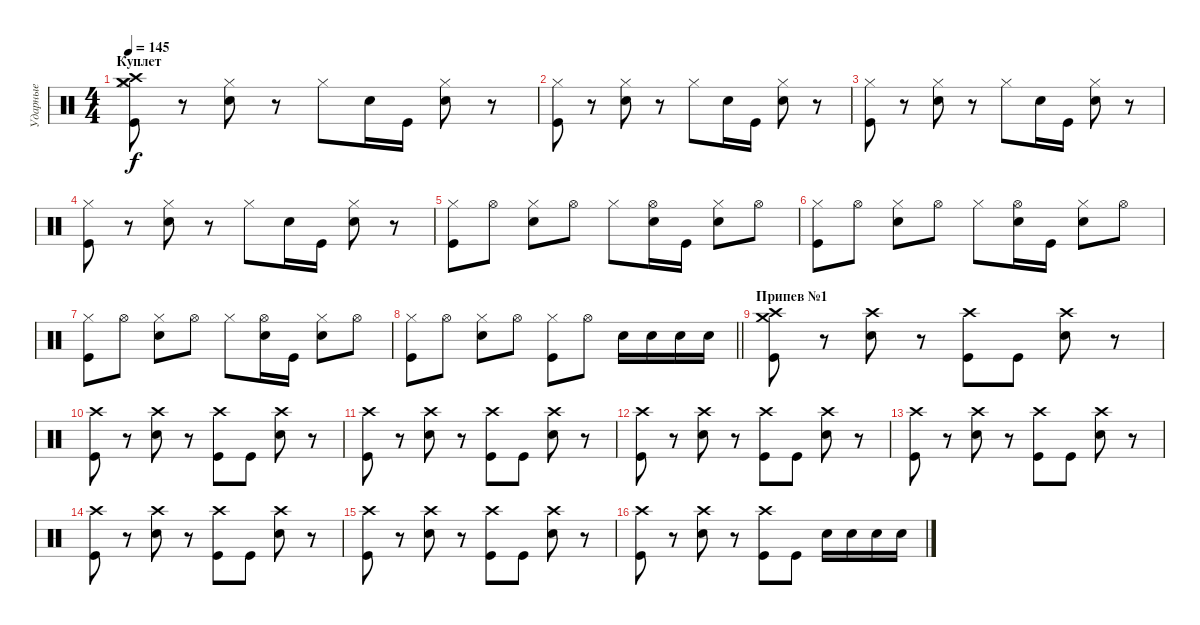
\track ("Ударные" "Ударные") {instrument percussion}
\staff {score}
\articulation defaults
\ts (4 4)
\section ("" "Куплет")
\tempo 145
\clef neutral
\ks c
("Kick (hit)" "Hi-Hat (closed)" "Crash high (hit)" "Crash medium (hit)").8{dy f} r.8 ("Electric Snare (hit)" "Hi-Hat (closed)").8 r.8 "Hi-Hat (closed)".8 "Electric Snare (hit)".16 "Kick (hit)".16 ("Electric Snare (hit)" "Hi-Hat (closed)").8 r.8 |
("Kick (hit)" "Hi-Hat (closed)").8 r.8 ("Electric Snare (hit)" "Hi-Hat (closed)").8 r.8 "Hi-Hat (closed)".8 "Electric Snare (hit)".16 "Kick (hit)".16 ("Electric Snare (hit)" "Hi-Hat (closed)").8 r.8 |
("Kick (hit)" "Hi-Hat (closed)").8 r.8 ("Electric Snare (hit)" "Hi-Hat (closed)").8 r.8 "Hi-Hat (closed)".8 "Electric Snare (hit)".16 "Kick (hit)".16 ("Electric Snare (hit)" "Hi-Hat (closed)").8 r.8 |
("Kick (hit)" "Hi-Hat (closed)").8 r.8 ("Electric Snare (hit)" "Hi-Hat (closed)").8 r.8 "Hi-Hat (closed)".8 "Electric Snare (hit)".16 "Kick (hit)".16 ("Electric Snare (hit)" "Hi-Hat (closed)").8 r.8 |
("Kick (hit)" "Hi-Hat (closed)").8 "Hi-Hat (open)".8 ("Electric Snare (hit)" "Hi-Hat (closed)").8 "Hi-Hat (open)".8 "Hi-Hat (closed)".8 ("Electric Snare (hit)" "Hi-Hat (open)").16 "Kick (hit)".16 ("Electric Snare (hit)" "Hi-Hat (closed)").8 "Hi-Hat (open)".8 |
("Kick (hit)" "Hi-Hat (closed)").8 "Hi-Hat (open)".8 ("Electric Snare (hit)" "Hi-Hat (closed)").8 "Hi-Hat (open)".8 "Hi-Hat (closed)".8 ("Electric Snare (hit)" "Hi-Hat (open)").16 "Kick (hit)".16 ("Electric Snare (hit)" "Hi-Hat (closed)").8 "Hi-Hat (open)".8 |
("Kick (hit)" "Hi-Hat (closed)").8 "Hi-Hat (open)".8 ("Electric Snare (hit)" "Hi-Hat (closed)").8 "Hi-Hat (open)".8 "Hi-Hat (closed)".8 ("Electric Snare (hit)" "Hi-Hat (open)").16 "Kick (hit)".16 ("Electric Snare (hit)" "Hi-Hat (closed)").8 "Hi-Hat (open)".8 |
\barLineRight lightlight
("Kick (hit)" "Hi-Hat (closed)").8 "Hi-Hat (open)".8 ("Electric Snare (hit)" "Hi-Hat (closed)").8 "Hi-Hat (open)".8 ("Kick (hit)" "Hi-Hat (closed)").8 "Hi-Hat (open)".8 "Electric Snare (hit)".16 "Electric Snare (hit)".16 "Electric Snare (hit)".16 "Electric Snare (hit)".16 |
\section ("" "Припев №1")
("Kick (hit)" "Crash high (hit)" "Crash medium (hit)").8 r.8 ("Electric Snare (hit)" "Crash high (hit)").8 r.8 ("Kick (hit)" "Crash high (hit)").8 "Kick (hit)".8 ("Electric Snare (hit)" "Crash high (hit)").8 r.8 |
("Kick (hit)" "Crash high (hit)").8 r.8 ("Electric Snare (hit)" "Crash high (hit)").8 r.8 ("Kick (hit)" "Crash high (hit)").8 "Kick (hit)".8 ("Electric Snare (hit)" "Crash high (hit)").8 r.8 |
("Kick (hit)" "Crash high (hit)").8 r.8 ("Electric Snare (hit)" "Crash high (hit)").8 r.8 ("Kick (hit)" "Crash high (hit)").8 "Kick (hit)".8 ("Electric Snare (hit)" "Crash high (hit)").8 r.8 |
("Kick (hit)" "Crash high (hit)").8 r.8 ("Electric Snare (hit)" "Crash high (hit)").8 r.8 ("Kick (hit)" "Crash high (hit)").8 "Kick (hit)".8 ("Electric Snare (hit)" "Crash high (hit)").8 r.8 |
("Kick (hit)" "Crash high (hit)").8 r.8 ("Electric Snare (hit)" "Crash high (hit)").8 r.8 ("Kick (hit)" "Crash high (hit)").8 "Kick (hit)".8 ("Electric Snare (hit)" "Crash high (hit)").8 r.8 |
("Kick (hit)" "Crash high (hit)").8 r.8 ("Electric Snare (hit)" "Crash high (hit)").8 r.8 ("Kick (hit)" "Crash high (hit)").8 "Kick (hit)".8 ("Electric Snare (hit)" "Crash high (hit)").8 r.8 |
("Kick (hit)" "Crash high (hit)").8 r.8 ("Electric Snare (hit)" "Crash high (hit)").8 r.8 ("Kick (hit)" "Crash high (hit)").8 "Kick (hit)".8 ("Electric Snare (hit)" "Crash high (hit)").8 r.8 |
("Kick (hit)" "Crash high (hit)").8 r.8 ("Electric Snare (hit)" "Crash high (hit)").8 r.8 ("Kick (hit)" "Crash high (hit)").8 "Kick (hit)".8 "Electric Snare (hit)".16 "Electric Snare (hit)".16 "Electric Snare (hit)".16 "Electric Snare (hit)".16
